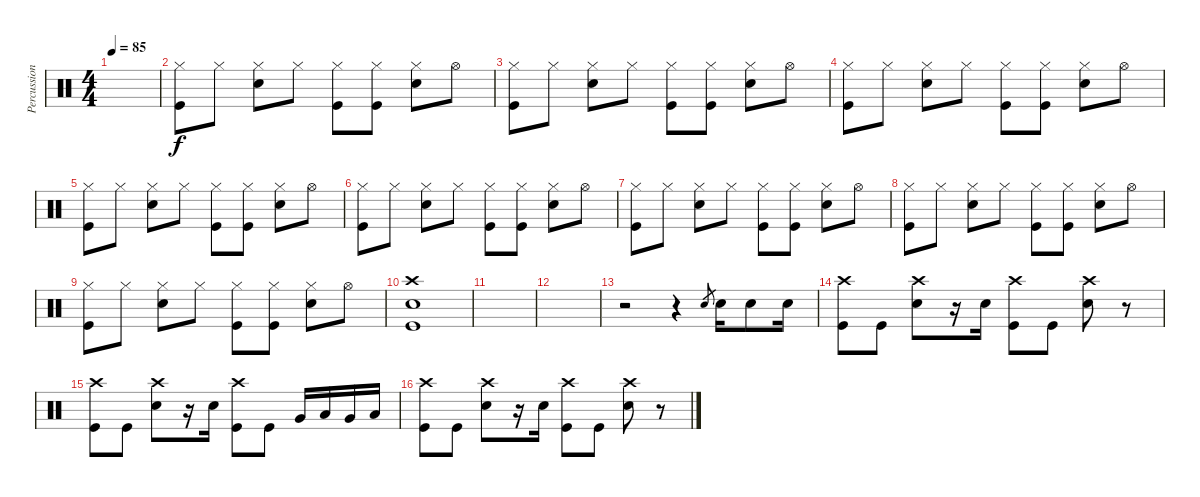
\track ("Percussions" "Percussion") {instrument percussion}
\staff {score}
\articulation defaults
\ts (4 4)
\tempo 85
\clef neutral
\ks c
|
("Hi-Hat (closed)" "Kick (hit)").8 "Hi-Hat (closed)".8 ("Hi-Hat (closed)" "Electric Snare (hit)").8 "Hi-Hat (closed)".8 ("Hi-Hat (closed)" "Kick (hit)").8 ("Hi-Hat (closed)" "Kick (hit)").8 ("Hi-Hat (closed)" "Electric Snare (hit)").8 "Hi-Hat (open)".8 |
("Hi-Hat (closed)" "Kick (hit)").8 "Hi-Hat (closed)".8 ("Hi-Hat (closed)" "Electric Snare (hit)").8 "Hi-Hat (closed)".8 ("Hi-Hat (closed)" "Kick (hit)").8 ("Hi-Hat (closed)" "Kick (hit)").8 ("Hi-Hat (closed)" "Electric Snare (hit)").8 "Hi-Hat (open)".8 |
("Hi-Hat (closed)" "Kick (hit)").8 "Hi-Hat (closed)".8 ("Hi-Hat (closed)" "Electric Snare (hit)").8 "Hi-Hat (closed)".8 ("Hi-Hat (closed)" "Kick (hit)").8 ("Hi-Hat (closed)" "Kick (hit)").8 ("Hi-Hat (closed)" "Electric Snare (hit)").8 "Hi-Hat (open)".8 |
("Hi-Hat (closed)" "Kick (hit)").8 "Hi-Hat (closed)".8 ("Hi-Hat (closed)" "Electric Snare (hit)").8 "Hi-Hat (closed)".8 ("Hi-Hat (closed)" "Kick (hit)").8 ("Hi-Hat (closed)" "Kick (hit)").8 ("Hi-Hat (closed)" "Electric Snare (hit)").8 "Hi-Hat (open)".8 |
("Hi-Hat (closed)" "Kick (hit)").8 "Hi-Hat (closed)".8 ("Hi-Hat (closed)" "Electric Snare (hit)").8 "Hi-Hat (closed)".8 ("Hi-Hat (closed)" "Kick (hit)").8 ("Hi-Hat (closed)" "Kick (hit)").8 ("Hi-Hat (closed)" "Electric Snare (hit)").8 "Hi-Hat (open)".8 |
("Hi-Hat (closed)" "Kick (hit)").8 "Hi-Hat (closed)".8 ("Hi-Hat (closed)" "Electric Snare (hit)").8 "Hi-Hat (closed)".8 ("Hi-Hat (closed)" "Kick (hit)").8 ("Hi-Hat (closed)" "Kick (hit)").8 ("Hi-Hat (closed)" "Electric Snare (hit)").8 "Hi-Hat (open)".8 |
("Hi-Hat (closed)" "Kick (hit)").8 "Hi-Hat (closed)".8 ("Hi-Hat (closed)" "Electric Snare (hit)").8 "Hi-Hat (closed)".8 ("Hi-Hat (closed)" "Kick (hit)").8 ("Hi-Hat (closed)" "Kick (hit)").8 ("Hi-Hat (closed)" "Electric Snare (hit)").8 "Hi-Hat (open)".8 |
("Hi-Hat (closed)" "Kick (hit)").8 "Hi-Hat (closed)".8 ("Hi-Hat (closed)" "Electric Snare (hit)").8 "Hi-Hat (closed)".8 ("Hi-Hat (closed)" "Kick (hit)").8 ("Hi-Hat (closed)" "Kick (hit)").8 ("Hi-Hat (closed)" "Electric Snare (hit)").8 "Hi-Hat (open)".8 |
("Crash high (hit)" "Electric Snare (hit)" "Kick (hit)").1 |
|
|
r.2 r.4 "Electric Snare (hit)".8{gr} "Electric Snare (hit)".16 "Electric Snare (hit)".8 "Electric Snare (hit)".16 |
("Crash high (hit)" "Kick (hit)").8 "Kick (hit)".8 ("Crash high (hit)" "Electric Snare (hit)").8 r.16 "Electric Snare (hit)".16 ("Crash high (hit)" "Kick (hit)").8 "Kick (hit)".8 ("Crash high (hit)" "Electric Snare (hit)").8 r.8 |
("Crash high (hit)" "Kick (hit)").8 "Kick (hit)".8 ("Crash high (hit)" "Electric Snare (hit)").8 r.16 "Electric Snare (hit)".16 ("Crash high (hit)" "Kick (hit)").8 "Kick (hit)".8 "Very Low Tom (hit)".16 "Low Floor Tom (hit)".16 "Very Low Tom (hit)".16 "Low Tom (hit)".16 |
("Crash high (hit)" "Kick (hit)").8 "Kick (hit)".8 ("Crash high (hit)" "Electric Snare (hit)").8 r.16 "Electric Snare (hit)".16 ("Crash high (hit)" "Kick (hit)").8 "Kick (hit)".8 ("Crash high (hit)" "Electric Snare (hit)").8 r.8
